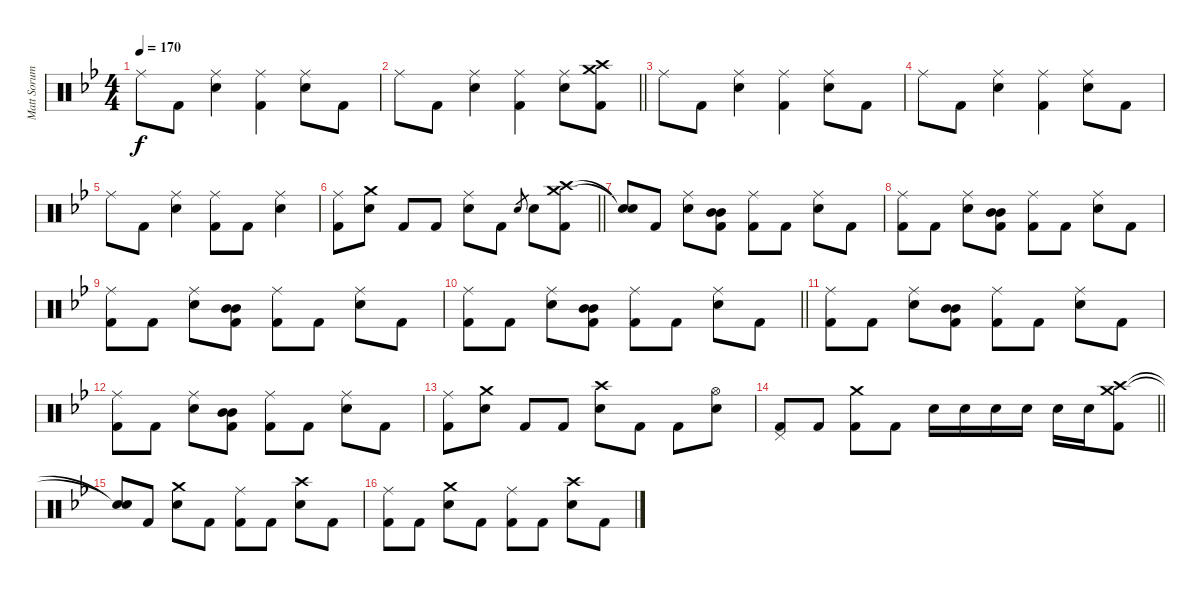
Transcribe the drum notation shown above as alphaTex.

\track ("Matt Sorum - Drums" "Matt Sorum") {instrument percussion}
\staff {score}
\articulation defaults
\ts (4 4)
\tempo 170
\clef neutral
\ks bb "Ride (middle)".8{dy f} "Kick (hit) 2".8
("Ride (middle)" "Snare (hit) 2").4 ("Ride (middle)" "Kick (hit) 2").4 ("Ride (middle)" "Snare (hit) 2").8 "Kick (hit) 2".8 |
\barLineRight lightlight "Ride (middle)".8 "Kick (hit) 2".8
("Ride (middle)" "Snare (hit) 2").4 ("Ride (middle)" "Kick (hit) 2").4 ("Ride (middle)" "Snare (hit) 2").8 ("Crash medium (hit)" "Crash high (hit)" "Kick (hit) 2").8 |
"Ride (middle)".8 "Kick (hit) 2".8 ("Ride (middle)" "Snare (hit) 2").4 ("Ride (middle)" "Kick (hit) 2").4 ("Ride (middle)" "Snare (hit) 2").8 "Kick (hit) 2".8 |
"Ride (middle)".8 "Kick (hit) 2".8 ("Ride (middle)" "Snare (hit) 2").4 ("Ride (middle)" "Kick (hit) 2").4 ("Ride (middle)" "Snare (hit) 2").8 "Kick (hit) 2".8 |
"Ride (middle)".8 "Kick (hit) 2".8 ("Ride (middle)" "Snare (hit) 2").4 ("Ride (middle)" "Kick (hit) 2").8 "Kick (hit) 2".8 ("Ride (middle)" "Snare (hit) 2").4 |
\barLineRight lightlight
("Ride (middle)" "Kick (hit) 2").8 ("Crash medium (hit)" "Snare (hit) 2").8 "Kick (hit) 2".8 "Kick (hit) 2".8 ("Ride (middle)" "Snare (hit) 2").8 "Kick (hit) 2".8 "Snare (hit) 2".8{gr} "Snare (hit) 2".8 ("Crash medium (hit)" "Crash high (hit)" "Kick (hit) 2").8 |
("Snare (hit)"{t} "Snare (hit)"{t}).8 "Kick (hit) 2".8 ("Ride (middle)" "Snare (hit) 2").8 ("Mid Tom (hit)" "Mid Tom (hit)" "Kick (hit) 2").8 ("Ride (middle)" "Kick (hit) 2").8 "Kick (hit) 2".8 ("Ride (middle)" "Snare (hit) 2").8 "Kick (hit) 2".8 |
("Ride (middle)" "Kick (hit) 2").8 "Kick (hit) 2".8 ("Ride (middle)" "Snare (hit) 2").8 ("Mid Tom (hit)" "Mid Tom (hit)" "Kick (hit) 2").8 ("Ride (middle)" "Kick (hit) 2").8 "Kick (hit) 2".8 ("Ride (middle)" "Snare (hit) 2").8 "Kick (hit) 2".8 |
("Ride (middle)" "Kick (hit) 2").8 "Kick (hit) 2".8 ("Ride (middle)" "Snare (hit) 2").8 ("Mid Tom (hit)" "Mid Tom (hit)" "Kick (hit) 2").8 ("Ride (middle)" "Kick (hit) 2").8 "Kick (hit) 2".8 ("Ride (middle)" "Snare (hit) 2").8 "Kick (hit) 2".8 |
\barLineRight lightlight
("Ride (middle)" "Kick (hit) 2").8 "Kick (hit) 2".8 ("Ride (middle)" "Snare (hit) 2").8 ("Mid Tom (hit)" "Mid Tom (hit)" "Kick (hit) 2").8 ("Ride (middle)" "Kick (hit) 2").8 "Kick (hit) 2".8 ("Ride (middle)" "Snare (hit) 2").8 "Kick (hit) 2".8 |
("Ride (middle)" "Kick (hit) 2").8 "Kick (hit) 2".8 ("Ride (middle)" "Snare (hit) 2").8 ("Mid Tom (hit)" "Mid Tom (hit)" "Kick (hit) 2").8 ("Ride (middle)" "Kick (hit) 2").8 "Kick (hit) 2".8 ("Ride (middle)" "Snare (hit) 2").8 "Kick (hit) 2".8 |
("Ride (middle)" "Kick (hit) 2").8 "Kick (hit) 2".8 ("Ride (middle)" "Snare (hit) 2").8 ("Mid Tom (hit)" "Mid Tom (hit)" "Kick (hit) 2").8 ("Ride (middle)" "Kick (hit) 2").8 "Kick (hit) 2".8 ("Ride (middle)" "Snare (hit) 2").8 "Kick (hit) 2".8 |
("Ride (middle)" "Kick (hit) 2").8 ("Crash medium (hit)" "Snare (hit) 2").8 "Kick (hit) 2".8 "Kick (hit) 2".8 ("Crash high (hit)" "Snare (hit) 2").8 "Kick (hit) 2".8 "Kick (hit) 2".8 ("Hi-Hat (open)" "Snare (hit) 2").8 |
\barLineRight lightlight
("Pedal Hi-Hat (hit)" "Kick (hit) 2").8 "Kick (hit) 2".8 ("Crash medium (hit)" "Kick (hit) 2").8 "Kick (hit) 2".8 "Snare (hit) 2".16 "Snare (hit) 2".16 "Snare (hit) 2".16 "Snare (hit) 2".16 "Snare (hit) 2".16 "Snare (hit) 2".16 ("Crash medium (hit)" "Crash high (hit)" "Kick (hit) 2").8 |
("Snare (hit)"{t} "Snare (hit)"{t}).8 "Kick (hit) 2".8 ("Crash medium (hit)" "Snare (hit) 2").8 "Kick (hit) 2".8 ("Ride (middle)" "Kick (hit) 2").8 "Kick (hit) 2".8 ("Crash high (hit)" "Snare (hit) 2").8 "Kick (hit) 2".8 |
("Ride (middle)" "Kick (hit) 2").8 "Kick (hit) 2".8 ("Crash medium (hit)" "Snare (hit) 2").8 "Kick (hit) 2".8 ("Ride (middle)" "Kick (hit) 2").8 "Kick (hit) 2".8 ("Crash high (hit)" "Snare (hit) 2").8 "Kick (hit) 2".8
